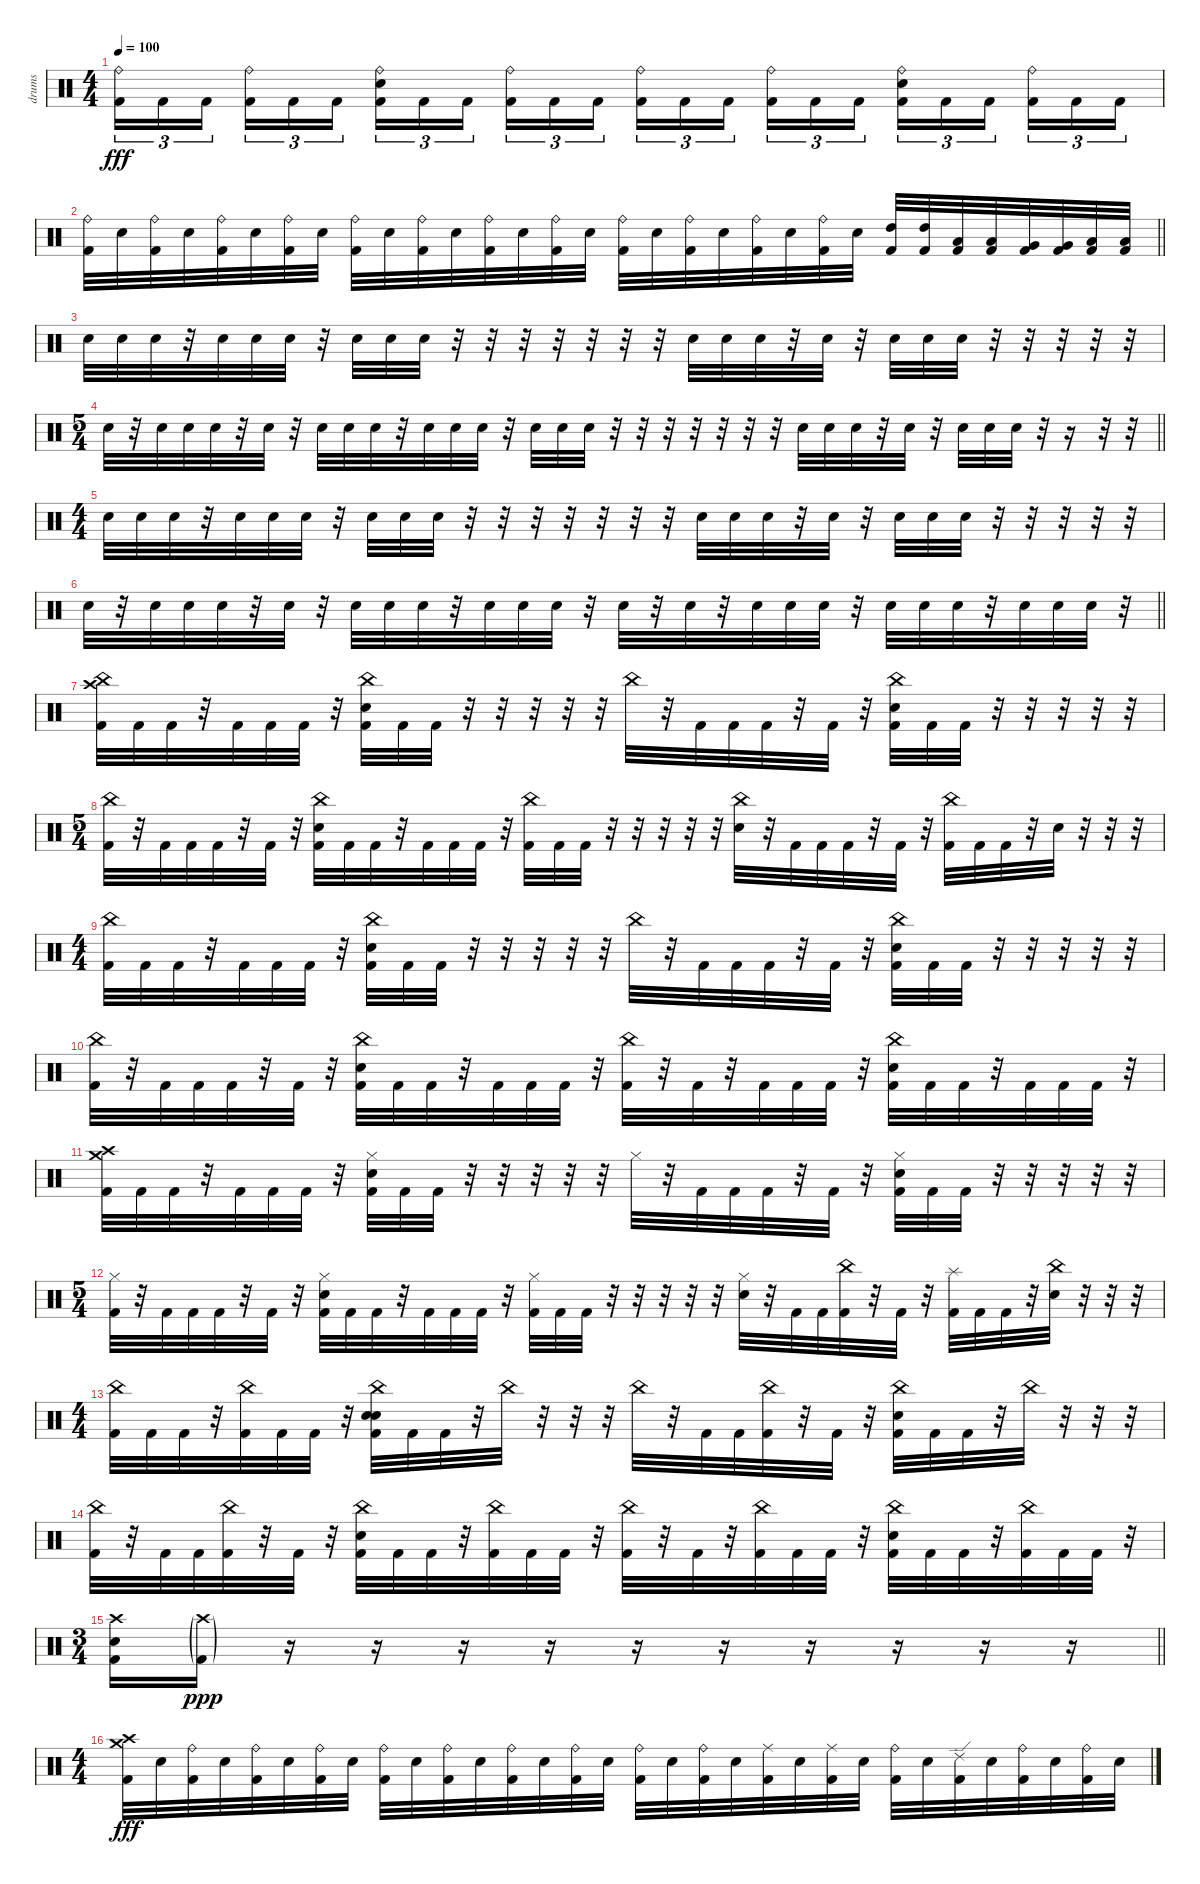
\track ("drums" "drums") {instrument percussion}
\staff {score}
\articulation defaults
\ts (4 4)
\tempo 100
\clef neutral
\ks c
("Ride (bell)" "Kick (hit) 2").16{tu (3 2) dy fff} "Kick (hit) 2".16{tu (3 2)} "Kick (hit) 2".16{tu (3 2) beam splitsecondary} ("Ride (bell)" "Kick (hit) 2").16{tu (3 2)} "Kick (hit) 2".16{tu (3 2)} "Kick (hit) 2".16{tu (3 2)} ("Ride (bell)" "Electric Snare (hit)" "Kick (hit) 2").16{tu (3 2)} "Kick (hit) 2".16{tu (3 2)} "Kick (hit) 2".16{tu (3 2) beam splitsecondary} ("Ride (bell)" "Kick (hit) 2").16{tu (3 2)} "Kick (hit) 2".16{tu (3 2)} "Kick (hit) 2".16{tu (3 2)} ("Ride (bell)" "Kick (hit) 2").16{tu (3 2)} "Kick (hit) 2".16{tu (3 2)} "Kick (hit) 2".16{tu (3 2) beam splitsecondary} ("Ride (bell)" "Kick (hit) 2").16{tu (3 2)} "Kick (hit) 2".16{tu (3 2)} "Kick (hit) 2".16{tu (3 2)} ("Ride (bell)" "Electric Snare (hit)" "Kick (hit) 2").16{tu (3 2)} "Kick (hit) 2".16{tu (3 2)} "Kick (hit) 2".16{tu (3 2) beam splitsecondary} ("Ride (bell)" "Kick (hit) 2").16{tu (3 2)} "Kick (hit) 2".16{tu (3 2)} "Kick (hit) 2".16{tu (3 2)} |
\barLineRight lightlight
("Ride (bell)" "Kick (hit) 2").32 "Electric Snare (hit)".32 ("Ride (bell)" "Kick (hit) 2").32 "Electric Snare (hit)".32 ("Ride (bell)" "Kick (hit) 2").32 "Electric Snare (hit)".32 ("Ride (bell)" "Kick (hit) 2").32 "Electric Snare (hit)".32 ("Ride (bell)" "Kick (hit) 2").32 "Electric Snare (hit)".32 ("Ride (bell)" "Kick (hit) 2").32 "Electric Snare (hit)".32 ("Ride (bell)" "Kick (hit) 2").32 "Electric Snare (hit)".32 ("Ride (bell)" "Kick (hit) 2").32 "Electric Snare (hit)".32 ("Ride (bell)" "Kick (hit) 2").32 "Electric Snare (hit)".32 ("Ride (bell)" "Kick (hit) 2").32 "Electric Snare (hit)".32 ("Ride (bell)" "Kick (hit) 2").32 "Electric Snare (hit)".32 ("Ride (bell)" "Kick (hit) 2").32 "Electric Snare (hit)".32 ("High Tom (hit)" "Kick (hit) 2").32 ("High Tom (hit)" "Kick (hit) 2").32 ("Low Tom (hit)" "Kick (hit) 2").32 ("Low Tom (hit)" "Kick (hit) 2").32 ("Very Low Tom (hit)" "Kick (hit) 2").32 ("Very Low Tom (hit)" "Kick (hit) 2").32 ("Low Floor Tom (hit)" "Kick (hit) 2").32 ("Low Floor Tom (hit)" "Kick (hit) 2").32 |
\section ("" "")
"Electric Snare (hit)".32 "Electric Snare (hit)".32 "Electric Snare (hit)".32 r.32 "Electric Snare (hit)".32 "Electric Snare (hit)".32 "Electric Snare (hit)".32 r.32 "Electric Snare (hit)".32 "Electric Snare (hit)".32 "Electric Snare (hit)".32 r.32 r.32 r.32 r.32 r.32 r.32 r.32 "Electric Snare (hit)".32 "Electric Snare (hit)".32 "Electric Snare (hit)".32 r.32 "Electric Snare (hit)".32 r.32 "Electric Snare (hit)".32 "Electric Snare (hit)".32 "Electric Snare (hit)".32 r.32 r.32 r.32 r.32 r.32 |
\ts (5 4)
\barLineRight lightlight "Electric Snare (hit)".32
r.32 "Electric Snare (hit)".32 "Electric Snare (hit)".32 "Electric Snare (hit)".32 r.32 "Electric Snare (hit)".32 r.32 "Electric Snare (hit)".32 "Electric Snare (hit)".32 "Electric Snare (hit)".32 r.32 "Electric Snare (hit)".32 "Electric Snare (hit)".32 "Electric Snare (hit)".32 r.32 "Electric Snare (hit)".32 "Electric Snare (hit)".32 "Electric Snare (hit)".32 r.32 r.32 r.32 r.32 r.32 r.32 r.32 "Electric Snare (hit)".32 "Electric Snare (hit)".32 "Electric Snare (hit)".32 r.32 "Electric Snare (hit)".32 r.32 "Electric Snare (hit)".32 "Electric Snare (hit)".32 "Electric Snare (hit)".32 r.32 r.16 r.32 r.32 |
\ts (4 4)
"Electric Snare (hit)".32 "Electric Snare (hit)".32 "Electric Snare (hit)".32 r.32 "Electric Snare (hit)".32 "Electric Snare (hit)".32 "Electric Snare (hit)".32 r.32 "Electric Snare (hit)".32 "Electric Snare (hit)".32 "Electric Snare (hit)".32 r.32 r.32 r.32 r.32 r.32 r.32 r.32 "Electric Snare (hit)".32 "Electric Snare (hit)".32 "Electric Snare (hit)".32 r.32 "Electric Snare (hit)".32 r.32 "Electric Snare (hit)".32 "Electric Snare (hit)".32 "Electric Snare (hit)".32 r.32 r.32 r.32 r.32 r.32 |
\barLineRight lightlight "Electric Snare (hit)".32
r.32 "Electric Snare (hit)".32 "Electric Snare (hit)".32 "Electric Snare (hit)".32 r.32 "Electric Snare (hit)".32 r.32 "Electric Snare (hit)".32 "Electric Snare (hit)".32 "Electric Snare (hit)".32 r.32 "Electric Snare (hit)".32 "Electric Snare (hit)".32 "Electric Snare (hit)".32 r.32 "Electric Snare (hit)".32 r.32 "Electric Snare (hit)".32 r.32 "Electric Snare (hit)".32 "Electric Snare (hit)".32 "Electric Snare (hit)".32 r.32 "Electric Snare (hit)".32 "Electric Snare (hit)".32 "Electric Snare (hit)".32 r.32 "Electric Snare (hit)".32 "Electric Snare (hit)".32 "Electric Snare (hit)".32 r.32 |
\section ("" "")
("Crash high (hit)" "China (hit)" "Kick (hit) 2").32 "Kick (hit) 2".32 "Kick (hit) 2".32 r.32 "Kick (hit) 2".32 "Kick (hit) 2".32 "Kick (hit) 2".32 r.32 ("China (hit)" "Electric Snare (hit)" "Kick (hit) 2").32 "Kick (hit) 2".32 "Kick (hit) 2".32 r.32 r.32 r.32 r.32 r.32 "China (hit)".32 r.32 "Kick (hit) 2".32 "Kick (hit) 2".32 "Kick (hit) 2".32 r.32 "Kick (hit) 2".32 r.32 ("China (hit)" "Electric Snare (hit)" "Kick (hit) 2").32 "Kick (hit) 2".32 "Kick (hit) 2".32 r.32 r.32 r.32 r.32 r.32 |
\ts (5 4)
("China (hit)" "Kick (hit) 2").32 r.32 "Kick (hit) 2".32 "Kick (hit) 2".32 "Kick (hit) 2".32 r.32 "Kick (hit) 2".32 r.32 ("China (hit)" "Electric Snare (hit)" "Kick (hit) 2").32 "Kick (hit) 2".32 "Kick (hit) 2".32 r.32 "Kick (hit) 2".32 "Kick (hit) 2".32 "Kick (hit) 2".32 r.32 ("China (hit)" "Kick (hit) 2").32 "Kick (hit) 2".32 "Kick (hit) 2".32 r.32 r.32 r.32 r.32 r.32 ("China (hit)" "Electric Snare (hit)").32 r.32 "Kick (hit) 2".32 "Kick (hit) 2".32 "Kick (hit) 2".32 r.32 "Kick (hit) 2".32 r.32 ("China (hit)" "Kick (hit) 2").32 "Kick (hit) 2".32 "Kick (hit) 2".32 r.32 "Electric Snare (hit)".32 r.32 r.32 r.32 |
\ts (4 4)
("China (hit)" "Kick (hit) 2").32 "Kick (hit) 2".32 "Kick (hit) 2".32 r.32 "Kick (hit) 2".32 "Kick (hit) 2".32 "Kick (hit) 2".32 r.32 ("China (hit)" "Electric Snare (hit)" "Kick (hit) 2").32 "Kick (hit) 2".32 "Kick (hit) 2".32 r.32 r.32 r.32 r.32 r.32 "China (hit)".32 r.32 "Kick (hit) 2".32 "Kick (hit) 2".32 "Kick (hit) 2".32 r.32 "Kick (hit) 2".32 r.32 ("China (hit)" "Electric Snare (hit)" "Kick (hit) 2").32 "Kick (hit) 2".32 "Kick (hit) 2".32 r.32 r.32 r.32 r.32 r.32 |
("China (hit)" "Kick (hit) 2").32 r.32 "Kick (hit) 2".32 "Kick (hit) 2".32 "Kick (hit) 2".32 r.32 "Kick (hit) 2".32 r.32 ("China (hit)" "Electric Snare (hit)" "Kick (hit) 2").32 "Kick (hit) 2".32 "Kick (hit) 2".32 r.32 "Kick (hit) 2".32 "Kick (hit) 2".32 "Kick (hit) 2".32 r.32 ("China (hit)" "Kick (hit) 2").32 r.32 "Kick (hit) 2".32 r.32 "Kick (hit) 2".32 "Kick (hit) 2".32 "Kick (hit) 2".32 r.32 ("China (hit)" "Electric Snare (hit)" "Kick (hit) 2").32 "Kick (hit) 2".32 "Kick (hit) 2".32 r.32 "Kick (hit) 2".32 "Kick (hit) 2".32 "Kick (hit) 2".32 r.32 |
("Crash high (hit)" "Crash medium (hit)" "Kick (hit) 2").32 "Kick (hit) 2".32 "Kick (hit) 2".32 r.32 "Kick (hit) 2".32 "Kick (hit) 2".32 "Kick (hit) 2".32 r.32 ("Hi-Hat (closed)" "Electric Snare (hit)" "Kick (hit) 2").32 "Kick (hit) 2".32 "Kick (hit) 2".32 r.32 r.32 r.32 r.32 r.32 "Hi-Hat (closed)".32 r.32 "Kick (hit) 2".32 "Kick (hit) 2".32 "Kick (hit) 2".32 r.32 "Kick (hit) 2".32 r.32 ("Hi-Hat (closed)" "Electric Snare (hit)" "Kick (hit) 2").32 "Kick (hit) 2".32 "Kick (hit) 2".32 r.32 r.32 r.32 r.32 r.32 |
\ts (5 4)
("Hi-Hat (closed)" "Kick (hit) 2").32 r.32 "Kick (hit) 2".32 "Kick (hit) 2".32 "Kick (hit) 2".32 r.32 "Kick (hit) 2".32 r.32 ("Hi-Hat (closed)" "Electric Snare (hit)" "Kick (hit) 2").32 "Kick (hit) 2".32 "Kick (hit) 2".32 r.32 "Kick (hit) 2".32 "Kick (hit) 2".32 "Kick (hit) 2".32 r.32 ("Hi-Hat (closed)" "Kick (hit) 2").32 "Kick (hit) 2".32 "Kick (hit) 2".32 r.32 r.32 r.32 r.32 r.32 ("Hi-Hat (closed)" "Electric Snare (hit)").32 r.32 "Kick (hit) 2".32 "Kick (hit) 2".32 ("China (hit)" "Kick (hit) 2").32 r.32 "Kick (hit) 2".32 r.32 ("Splash (hit)" "Kick (hit) 2").32 "Kick (hit) 2".32 "Kick (hit) 2".32 r.32 ("China (hit)" "Electric Snare (hit)").32 r.32 r.32 r.32 |
\ts (4 4)
("China (hit)" "Kick (hit) 2").32 "Kick (hit) 2".32 "Kick (hit) 2".32 r.32 ("China (hit)" "Kick (hit) 2").32 "Kick (hit) 2".32 "Kick (hit) 2".32 r.32 ("China (hit)" "Electric Snare (hit)" "Electric Snare (hit)" "Kick (hit) 2").32 "Kick (hit) 2".32 "Kick (hit) 2".32 r.32 "China (hit)".32 r.32 r.32 r.32 "China (hit)".32 r.32 "Kick (hit) 2".32 "Kick (hit) 2".32 ("China (hit)" "Kick (hit) 2").32 r.32 "Kick (hit) 2".32 r.32 ("China (hit)" "Electric Snare (hit)" "Kick (hit) 2").32 "Kick (hit) 2".32 "Kick (hit) 2".32 r.32 "China (hit)".32 r.32 r.32 r.32 |
("China (hit)" "Kick (hit) 2").32 r.32 "Kick (hit) 2".32 "Kick (hit) 2".32 ("China (hit)" "Kick (hit) 2").32 r.32 "Kick (hit) 2".32 r.32 ("China (hit)" "Electric Snare (hit)" "Kick (hit) 2").32 "Kick (hit) 2".32 "Kick (hit) 2".32 r.32 ("China (hit)" "Kick (hit) 2").32 "Kick (hit) 2".32 "Kick (hit) 2".32 r.32 ("China (hit)" "Kick (hit) 2").32 r.32 "Kick (hit) 2".32 r.32 ("China (hit)" "Kick (hit) 2").32 "Kick (hit) 2".32 "Kick (hit) 2".32 r.32 ("China (hit)" "Electric Snare (hit)" "Kick (hit) 2").32 "Kick (hit) 2".32 "Kick (hit) 2".32 r.32 ("China (hit)" "Kick (hit) 2").32 "Kick (hit) 2".32 "Kick (hit) 2".32 r.32 |
\ts (3 4)
\barLineRight lightlight
("Crash high (hit)" "Electric Snare (hit)" "Kick (hit) 2").16 ("Crash high (hit)"{g} "Kick (hit) 2"{g}).16{dy ppp} r.16 r.16 r.16 r.16 r.16 r.16 r.16 r.16 r.16 r.16 |
\ts (4 4)
\section ("" "")
("Crash high (hit)" "Crash medium (hit)" "Kick (hit) 2").32{dy fff} "Electric Snare (hit)".32 ("Ride (bell)" "Kick (hit) 2").32 "Electric Snare (hit)".32 ("Ride (bell)" "Kick (hit) 2").32 "Electric Snare (hit)".32 ("Ride (bell)" "Kick (hit) 2").32 "Electric Snare (hit)".32 ("Ride (bell)" "Kick (hit) 2").32 "Electric Snare (hit)".32 ("Ride (bell)" "Kick (hit) 2").32 "Electric Snare (hit)".32 ("Ride (bell)" "Kick (hit) 2").32 "Electric Snare (hit)".32 ("Ride (bell)" "Kick (hit) 2").32 "Electric Snare (hit)".32 ("Ride (bell)" "Kick (hit) 2").32 "Electric Snare (hit)".32 ("Ride (bell)" "Kick (hit) 2").32 "Electric Snare (hit)".32 ("Ride (middle)" "Kick (hit) 2").32 "Electric Snare (hit)".32 ("Ride (middle)" "Kick (hit) 2").32 "Electric Snare (hit)".32 ("Ride (bell)" "Kick (hit) 2").32 "Electric Snare (hit)".32 ("Ride (edge) 2" "Kick (hit) 2").32 "Electric Snare (hit)".32 ("Ride (bell)" "Kick (hit) 2").32 "Electric Snare (hit)".32 ("Ride (bell)" "Kick (hit) 2").32 "Electric Snare (hit)".32
